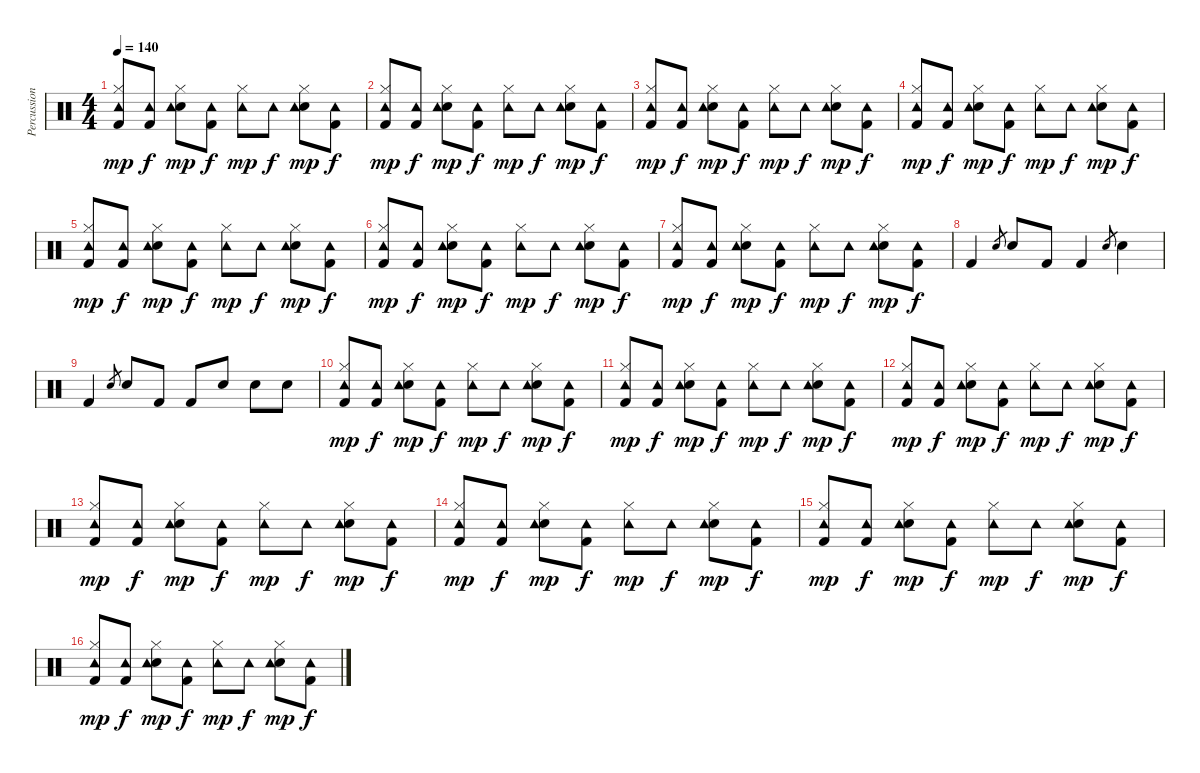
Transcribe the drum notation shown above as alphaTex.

\track ("Percussion" "Percussion") {instrument percussion}
\staff {score}
\articulation defaults
\ts (4 4)
\tempo 140
\clef neutral
\ks c
("Kick (hit) 2" "Hi-Hat (closed)" "Tambourine (hit)").8{dy mp} ("Kick (hit) 2" "Tambourine (hit)").8{dy f} ("Snare (hit) 2" "Hi-Hat (closed)" "Tambourine (hit)").8{dy mp} ("Kick (hit) 2" "Tambourine (hit)").8{dy f} ("Hi-Hat (closed)" "Tambourine (hit)").8{dy mp} "Tambourine (hit)".8{dy f} ("Snare (hit) 2" "Hi-Hat (closed)" "Tambourine (hit)").8{dy mp} ("Kick (hit) 2" "Tambourine (hit)").8{dy f} |
("Kick (hit) 2" "Hi-Hat (closed)" "Tambourine (hit)").8{dy mp} ("Kick (hit) 2" "Tambourine (hit)").8{dy f} ("Snare (hit) 2" "Hi-Hat (closed)" "Tambourine (hit)").8{dy mp} ("Kick (hit) 2" "Tambourine (hit)").8{dy f} ("Hi-Hat (closed)" "Tambourine (hit)").8{dy mp} "Tambourine (hit)".8{dy f} ("Snare (hit) 2" "Hi-Hat (closed)" "Tambourine (hit)").8{dy mp} ("Kick (hit) 2" "Tambourine (hit)").8{dy f} |
("Kick (hit) 2" "Hi-Hat (closed)" "Tambourine (hit)").8{dy mp} ("Kick (hit) 2" "Tambourine (hit)").8{dy f} ("Snare (hit) 2" "Hi-Hat (closed)" "Tambourine (hit)").8{dy mp} ("Kick (hit) 2" "Tambourine (hit)").8{dy f} ("Hi-Hat (closed)" "Tambourine (hit)").8{dy mp} "Tambourine (hit)".8{dy f} ("Snare (hit) 2" "Hi-Hat (closed)" "Tambourine (hit)").8{dy mp} ("Kick (hit) 2" "Tambourine (hit)").8{dy f} |
("Kick (hit) 2" "Hi-Hat (closed)" "Tambourine (hit)").8{dy mp} ("Kick (hit) 2" "Tambourine (hit)").8{dy f} ("Snare (hit) 2" "Hi-Hat (closed)" "Tambourine (hit)").8{dy mp} ("Kick (hit) 2" "Tambourine (hit)").8{dy f} ("Hi-Hat (closed)" "Tambourine (hit)").8{dy mp} "Tambourine (hit)".8{dy f} ("Snare (hit) 2" "Hi-Hat (closed)" "Tambourine (hit)").8{dy mp} ("Kick (hit) 2" "Tambourine (hit)").8{dy f} |
("Kick (hit) 2" "Hi-Hat (closed)" "Tambourine (hit)").8{dy mp} ("Kick (hit) 2" "Tambourine (hit)").8{dy f} ("Snare (hit) 2" "Hi-Hat (closed)" "Tambourine (hit)").8{dy mp} ("Kick (hit) 2" "Tambourine (hit)").8{dy f} ("Hi-Hat (closed)" "Tambourine (hit)").8{dy mp} "Tambourine (hit)".8{dy f} ("Snare (hit) 2" "Hi-Hat (closed)" "Tambourine (hit)").8{dy mp} ("Kick (hit) 2" "Tambourine (hit)").8{dy f} |
("Kick (hit) 2" "Hi-Hat (closed)" "Tambourine (hit)").8{dy mp} ("Kick (hit) 2" "Tambourine (hit)").8{dy f} ("Snare (hit) 2" "Hi-Hat (closed)" "Tambourine (hit)").8{dy mp} ("Kick (hit) 2" "Tambourine (hit)").8{dy f} ("Hi-Hat (closed)" "Tambourine (hit)").8{dy mp} "Tambourine (hit)".8{dy f} ("Snare (hit) 2" "Hi-Hat (closed)" "Tambourine (hit)").8{dy mp} ("Kick (hit) 2" "Tambourine (hit)").8{dy f} |
("Kick (hit) 2" "Hi-Hat (closed)" "Tambourine (hit)").8{dy mp} ("Kick (hit) 2" "Tambourine (hit)").8{dy f} ("Snare (hit) 2" "Hi-Hat (closed)" "Tambourine (hit)").8{dy mp} ("Kick (hit) 2" "Tambourine (hit)").8{dy f} ("Hi-Hat (closed)" "Tambourine (hit)").8{dy mp} "Tambourine (hit)".8{dy f} ("Snare (hit) 2" "Hi-Hat (closed)" "Tambourine (hit)").8{dy mp} ("Kick (hit) 2" "Tambourine (hit)").8{dy f} |
"Kick (hit) 2".4 "Snare (hit) 2".8{gr} "Snare (hit) 2".8 "Kick (hit) 2".8 "Kick (hit) 2".4 "Snare (hit) 2".8{gr} "Snare (hit) 2".4 |
"Kick (hit) 2".4 "Snare (hit) 2".8{gr} "Snare (hit) 2".8 "Kick (hit) 2".8 "Kick (hit) 2".8 "Snare (hit) 2".8 "Snare (hit) 2".8 "Snare (hit) 2".8 |
("Kick (hit) 2" "Hi-Hat (closed)" "Tambourine (hit)").8{dy mp} ("Kick (hit) 2" "Tambourine (hit)").8{dy f} ("Snare (hit) 2" "Hi-Hat (closed)" "Tambourine (hit)").8{dy mp} ("Kick (hit) 2" "Tambourine (hit)").8{dy f} ("Hi-Hat (closed)" "Tambourine (hit)").8{dy mp} "Tambourine (hit)".8{dy f} ("Snare (hit) 2" "Hi-Hat (closed)" "Tambourine (hit)").8{dy mp} ("Kick (hit) 2" "Tambourine (hit)").8{dy f} |
("Kick (hit) 2" "Hi-Hat (closed)" "Tambourine (hit)").8{dy mp} ("Kick (hit) 2" "Tambourine (hit)").8{dy f} ("Snare (hit) 2" "Hi-Hat (closed)" "Tambourine (hit)").8{dy mp} ("Kick (hit) 2" "Tambourine (hit)").8{dy f} ("Hi-Hat (closed)" "Tambourine (hit)").8{dy mp} "Tambourine (hit)".8{dy f} ("Snare (hit) 2" "Hi-Hat (closed)" "Tambourine (hit)").8{dy mp} ("Kick (hit) 2" "Tambourine (hit)").8{dy f} |
("Kick (hit) 2" "Hi-Hat (closed)" "Tambourine (hit)").8{dy mp} ("Kick (hit) 2" "Tambourine (hit)").8{dy f} ("Snare (hit) 2" "Hi-Hat (closed)" "Tambourine (hit)").8{dy mp} ("Kick (hit) 2" "Tambourine (hit)").8{dy f} ("Hi-Hat (closed)" "Tambourine (hit)").8{dy mp} "Tambourine (hit)".8{dy f} ("Snare (hit) 2" "Hi-Hat (closed)" "Tambourine (hit)").8{dy mp} ("Kick (hit) 2" "Tambourine (hit)").8{dy f} |
("Kick (hit) 2" "Hi-Hat (closed)" "Tambourine (hit)").8{dy mp} ("Kick (hit) 2" "Tambourine (hit)").8{dy f} ("Snare (hit) 2" "Hi-Hat (closed)" "Tambourine (hit)").8{dy mp} ("Kick (hit) 2" "Tambourine (hit)").8{dy f} ("Hi-Hat (closed)" "Tambourine (hit)").8{dy mp} "Tambourine (hit)".8{dy f} ("Snare (hit) 2" "Hi-Hat (closed)" "Tambourine (hit)").8{dy mp} ("Kick (hit) 2" "Tambourine (hit)").8{dy f} |
("Kick (hit) 2" "Hi-Hat (closed)" "Tambourine (hit)").8{dy mp} ("Kick (hit) 2" "Tambourine (hit)").8{dy f} ("Snare (hit) 2" "Hi-Hat (closed)" "Tambourine (hit)").8{dy mp} ("Kick (hit) 2" "Tambourine (hit)").8{dy f} ("Hi-Hat (closed)" "Tambourine (hit)").8{dy mp} "Tambourine (hit)".8{dy f} ("Snare (hit) 2" "Hi-Hat (closed)" "Tambourine (hit)").8{dy mp} ("Kick (hit) 2" "Tambourine (hit)").8{dy f} |
("Kick (hit) 2" "Hi-Hat (closed)" "Tambourine (hit)").8{dy mp} ("Kick (hit) 2" "Tambourine (hit)").8{dy f} ("Snare (hit) 2" "Hi-Hat (closed)" "Tambourine (hit)").8{dy mp} ("Kick (hit) 2" "Tambourine (hit)").8{dy f} ("Hi-Hat (closed)" "Tambourine (hit)").8{dy mp} "Tambourine (hit)".8{dy f} ("Snare (hit) 2" "Hi-Hat (closed)" "Tambourine (hit)").8{dy mp} ("Kick (hit) 2" "Tambourine (hit)").8{dy f} |
("Kick (hit) 2" "Hi-Hat (closed)" "Tambourine (hit)").8{dy mp} ("Kick (hit) 2" "Tambourine (hit)").8{dy f} ("Snare (hit) 2" "Hi-Hat (closed)" "Tambourine (hit)").8{dy mp} ("Kick (hit) 2" "Tambourine (hit)").8{dy f} ("Hi-Hat (closed)" "Tambourine (hit)").8{dy mp} "Tambourine (hit)".8{dy f} ("Snare (hit) 2" "Hi-Hat (closed)" "Tambourine (hit)").8{dy mp} ("Kick (hit) 2" "Tambourine (hit)").8{dy f}
